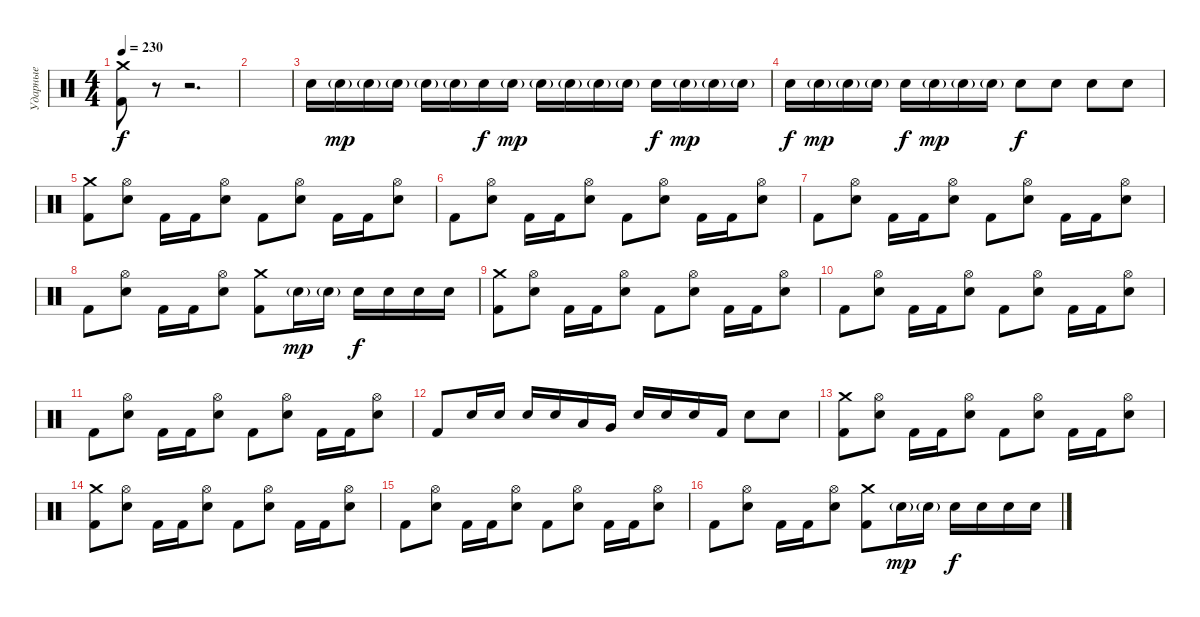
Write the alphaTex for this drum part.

\track ("Ударные" "Ударные") {instrument percussion}
\staff {score}
\articulation defaults
\ts (4 4)
\tempo 230
\clef neutral
\ks c
("Crash medium (hit)" "Kick (hit) 2").8{dy f} r.8 r.2{d} |
|
"Electric Snare (hit)".16 "Electric Snare (hit)"{g}.16{dy mp} "Electric Snare (hit)"{g}.16 "Electric Snare (hit)"{g}.16 "Electric Snare (hit)"{g}.16 "Electric Snare (hit)"{g}.16 "Electric Snare (hit)".16{dy f} "Electric Snare (hit)"{g}.16{dy mp} "Electric Snare (hit)"{g}.16 "Electric Snare (hit)"{g}.16 "Electric Snare (hit)"{g}.16 "Electric Snare (hit)"{g}.16 "Electric Snare (hit)".16{dy f} "Electric Snare (hit)"{g}.16{dy mp} "Electric Snare (hit)"{g}.16 "Electric Snare (hit)"{g}.16 |
"Electric Snare (hit)".16{dy f} "Electric Snare (hit)"{g}.16{dy mp} "Electric Snare (hit)"{g}.16 "Electric Snare (hit)"{g}.16 "Electric Snare (hit)".16{dy f} "Electric Snare (hit)"{g}.16{dy mp} "Electric Snare (hit)"{g}.16 "Electric Snare (hit)"{g}.16 "Electric Snare (hit)".8{dy f} "Electric Snare (hit)".8 "Electric Snare (hit)".8 "Electric Snare (hit)".8 |
("Crash medium (hit)" "Kick (hit) 2").8 ("Hi-Hat (open)" "Electric Snare (hit)").8 "Kick (hit) 2".16 "Kick (hit) 2".16 ("Hi-Hat (open)" "Electric Snare (hit)").8 "Kick (hit) 2".8 ("Hi-Hat (open)" "Electric Snare (hit)").8 "Kick (hit) 2".16 "Kick (hit) 2".16 ("Hi-Hat (open)" "Electric Snare (hit)").8 |
"Kick (hit) 2".8 ("Hi-Hat (open)" "Electric Snare (hit)").8 "Kick (hit) 2".16 "Kick (hit) 2".16 ("Hi-Hat (open)" "Electric Snare (hit)").8 "Kick (hit) 2".8 ("Hi-Hat (open)" "Electric Snare (hit)").8 "Kick (hit) 2".16 "Kick (hit) 2".16 ("Hi-Hat (open)" "Electric Snare (hit)").8 |
"Kick (hit) 2".8 ("Hi-Hat (open)" "Electric Snare (hit)").8 "Kick (hit) 2".16 "Kick (hit) 2".16 ("Hi-Hat (open)" "Electric Snare (hit)").8 "Kick (hit) 2".8 ("Hi-Hat (open)" "Electric Snare (hit)").8 "Kick (hit) 2".16 "Kick (hit) 2".16 ("Hi-Hat (open)" "Electric Snare (hit)").8 |
"Kick (hit) 2".8 ("Hi-Hat (open)" "Electric Snare (hit)").8 "Kick (hit) 2".16 "Kick (hit) 2".16 ("Hi-Hat (open)" "Electric Snare (hit)").8 ("Crash medium (hit)" "Kick (hit) 2").8 "Electric Snare (hit)"{g}.16{dy mp} "Electric Snare (hit)"{g}.16 "Electric Snare (hit)".16{dy f} "Electric Snare (hit)".16 "Electric Snare (hit)".16 "Electric Snare (hit)".16 |
("Crash medium (hit)" "Kick (hit) 2").8 ("Hi-Hat (open)" "Electric Snare (hit)").8 "Kick (hit) 2".16 "Kick (hit) 2".16 ("Hi-Hat (open)" "Electric Snare (hit)").8 "Kick (hit) 2".8 ("Hi-Hat (open)" "Electric Snare (hit)").8 "Kick (hit) 2".16 "Kick (hit) 2".16 ("Hi-Hat (open)" "Electric Snare (hit)").8 |
"Kick (hit) 2".8 ("Hi-Hat (open)" "Electric Snare (hit)").8 "Kick (hit) 2".16 "Kick (hit) 2".16 ("Hi-Hat (open)" "Electric Snare (hit)").8 "Kick (hit) 2".8 ("Hi-Hat (open)" "Electric Snare (hit)").8 "Kick (hit) 2".16 "Kick (hit) 2".16 ("Hi-Hat (open)" "Electric Snare (hit)").8 |
"Kick (hit) 2".8 ("Hi-Hat (open)" "Electric Snare (hit)").8 "Kick (hit) 2".16 "Kick (hit) 2".16 ("Hi-Hat (open)" "Electric Snare (hit)").8 "Kick (hit) 2".8 ("Hi-Hat (open)" "Electric Snare (hit)").8 "Kick (hit) 2".16 "Kick (hit) 2".16 ("Hi-Hat (open)" "Electric Snare (hit)").8 |
"Kick (hit) 2".8 "Electric Snare (hit)".16 "Electric Snare (hit)".16 "Electric Snare (hit)".16 "Electric Snare (hit)".16 "Low Tom (hit)".16 "Very Low Tom (hit)".16 "Electric Snare (hit)".16 "Electric Snare (hit)".16 "Electric Snare (hit)".16 "Kick (hit) 2".16 "Electric Snare (hit)".8 "Electric Snare (hit)".8 |
("Crash medium (hit)" "Kick (hit) 2").8 ("Hi-Hat (open)" "Electric Snare (hit)").8 "Kick (hit) 2".16 "Kick (hit) 2".16 ("Hi-Hat (open)" "Electric Snare (hit)").8 "Kick (hit) 2".8 ("Hi-Hat (open)" "Electric Snare (hit)").8 "Kick (hit) 2".16 "Kick (hit) 2".16 ("Hi-Hat (open)" "Electric Snare (hit)").8 |
("Crash medium (hit)" "Kick (hit) 2").8 ("Hi-Hat (open)" "Electric Snare (hit)").8 "Kick (hit) 2".16 "Kick (hit) 2".16 ("Hi-Hat (open)" "Electric Snare (hit)").8 "Kick (hit) 2".8 ("Hi-Hat (open)" "Electric Snare (hit)").8 "Kick (hit) 2".16 "Kick (hit) 2".16 ("Hi-Hat (open)" "Electric Snare (hit)").8 |
"Kick (hit) 2".8 ("Hi-Hat (open)" "Electric Snare (hit)").8 "Kick (hit) 2".16 "Kick (hit) 2".16 ("Hi-Hat (open)" "Electric Snare (hit)").8 "Kick (hit) 2".8 ("Hi-Hat (open)" "Electric Snare (hit)").8 "Kick (hit) 2".16 "Kick (hit) 2".16 ("Hi-Hat (open)" "Electric Snare (hit)").8 |
"Kick (hit) 2".8 ("Hi-Hat (open)" "Electric Snare (hit)").8 "Kick (hit) 2".16 "Kick (hit) 2".16 ("Hi-Hat (open)" "Electric Snare (hit)").8 ("Crash medium (hit)" "Kick (hit) 2").8 "Electric Snare (hit)"{g}.16{dy mp} "Electric Snare (hit)"{g}.16 "Electric Snare (hit)".16{dy f} "Electric Snare (hit)".16 "Electric Snare (hit)".16 "Electric Snare (hit)".16
